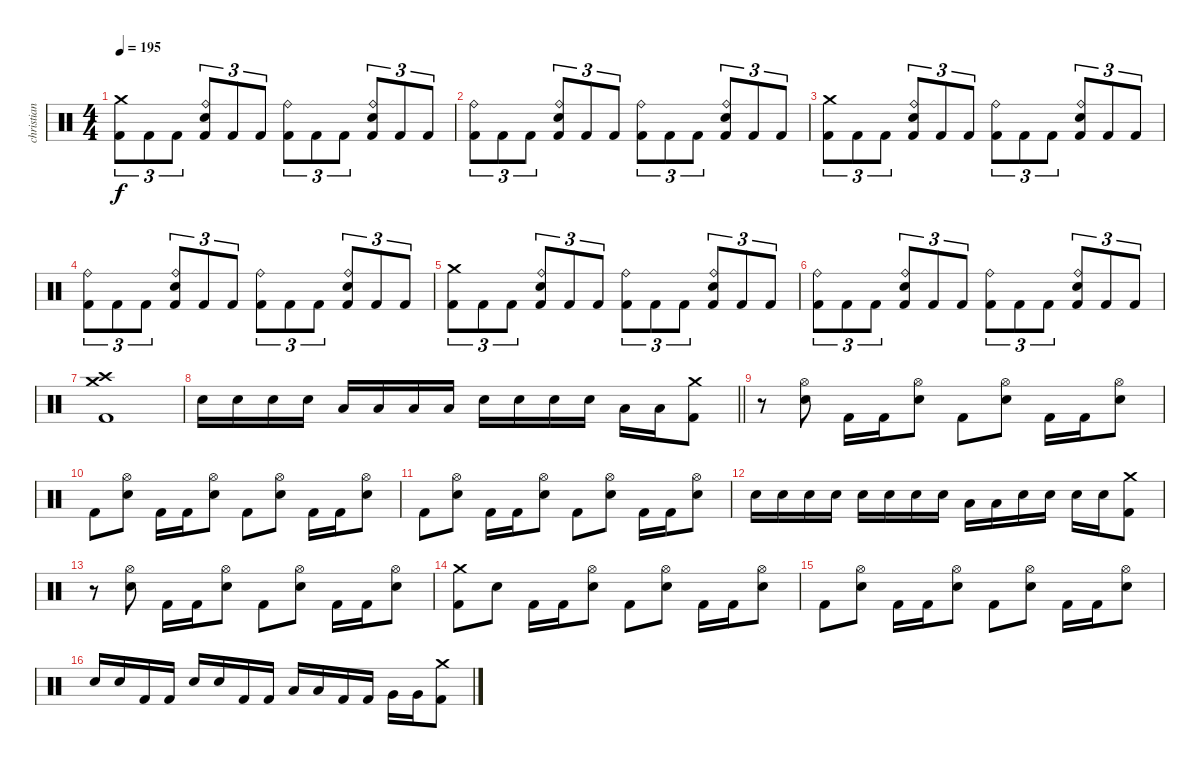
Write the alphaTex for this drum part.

\track ("christian" "christian") {instrument percussion}
\staff {score}
\articulation defaults
\ts (4 4)
\tempo 195
\clef neutral
\ks c
("Crash medium (hit)" "Kick (hit) 2").8{tu (3 2) dy f} "Kick (hit) 2".8{tu (3 2)} "Kick (hit) 2".8{tu (3 2)} ("Ride (bell)" "Electric Snare (hit)" "Kick (hit) 2").8{tu (3 2)} "Kick (hit) 2".8{tu (3 2)} "Kick (hit) 2".8{tu (3 2)} ("Ride (bell)" "Kick (hit) 2").8{tu (3 2)} "Kick (hit) 2".8{tu (3 2)} "Kick (hit) 2".8{tu (3 2)} ("Ride (bell)" "Electric Snare (hit)" "Kick (hit) 2").8{tu (3 2)} "Kick (hit) 2".8{tu (3 2)} "Kick (hit) 2".8{tu (3 2)} |
("Ride (bell)" "Kick (hit) 2").8{tu (3 2)} "Kick (hit) 2".8{tu (3 2)} "Kick (hit) 2".8{tu (3 2)} ("Ride (bell)" "Electric Snare (hit)" "Kick (hit) 2").8{tu (3 2)} "Kick (hit) 2".8{tu (3 2)} "Kick (hit) 2".8{tu (3 2)} ("Ride (bell)" "Kick (hit) 2").8{tu (3 2)} "Kick (hit) 2".8{tu (3 2)} "Kick (hit) 2".8{tu (3 2)} ("Ride (bell)" "Electric Snare (hit)" "Kick (hit) 2").8{tu (3 2)} "Kick (hit) 2".8{tu (3 2)} "Kick (hit) 2".8{tu (3 2)} |
("Crash medium (hit)" "Kick (hit) 2").8{tu (3 2)} "Kick (hit) 2".8{tu (3 2)} "Kick (hit) 2".8{tu (3 2)} ("Ride (bell)" "Electric Snare (hit)" "Kick (hit) 2").8{tu (3 2)} "Kick (hit) 2".8{tu (3 2)} "Kick (hit) 2".8{tu (3 2)} ("Ride (bell)" "Kick (hit) 2").8{tu (3 2)} "Kick (hit) 2".8{tu (3 2)} "Kick (hit) 2".8{tu (3 2)} ("Ride (bell)" "Electric Snare (hit)" "Kick (hit) 2").8{tu (3 2)} "Kick (hit) 2".8{tu (3 2)} "Kick (hit) 2".8{tu (3 2)} |
("Ride (bell)" "Kick (hit) 2").8{tu (3 2)} "Kick (hit) 2".8{tu (3 2)} "Kick (hit) 2".8{tu (3 2)} ("Ride (bell)" "Electric Snare (hit)" "Kick (hit) 2").8{tu (3 2)} "Kick (hit) 2".8{tu (3 2)} "Kick (hit) 2".8{tu (3 2)} ("Ride (bell)" "Kick (hit) 2").8{tu (3 2)} "Kick (hit) 2".8{tu (3 2)} "Kick (hit) 2".8{tu (3 2)} ("Ride (bell)" "Electric Snare (hit)" "Kick (hit) 2").8{tu (3 2)} "Kick (hit) 2".8{tu (3 2)} "Kick (hit) 2".8{tu (3 2)} |
("Crash medium (hit)" "Kick (hit) 2").8{tu (3 2)} "Kick (hit) 2".8{tu (3 2)} "Kick (hit) 2".8{tu (3 2)} ("Ride (bell)" "Electric Snare (hit)" "Kick (hit) 2").8{tu (3 2)} "Kick (hit) 2".8{tu (3 2)} "Kick (hit) 2".8{tu (3 2)} ("Ride (bell)" "Kick (hit) 2").8{tu (3 2)} "Kick (hit) 2".8{tu (3 2)} "Kick (hit) 2".8{tu (3 2)} ("Ride (bell)" "Electric Snare (hit)" "Kick (hit) 2").8{tu (3 2)} "Kick (hit) 2".8{tu (3 2)} "Kick (hit) 2".8{tu (3 2)} |
("Ride (bell)" "Kick (hit) 2").8{tu (3 2)} "Kick (hit) 2".8{tu (3 2)} "Kick (hit) 2".8{tu (3 2)} ("Ride (bell)" "Electric Snare (hit)" "Kick (hit) 2").8{tu (3 2)} "Kick (hit) 2".8{tu (3 2)} "Kick (hit) 2".8{tu (3 2)} ("Ride (bell)" "Kick (hit) 2").8{tu (3 2)} "Kick (hit) 2".8{tu (3 2)} "Kick (hit) 2".8{tu (3 2)} ("Ride (bell)" "Electric Snare (hit)" "Kick (hit) 2").8{tu (3 2)} "Kick (hit) 2".8{tu (3 2)} "Kick (hit) 2".8{tu (3 2)} |
("Crash medium (hit)" "Crash high (hit)" "Kick (hit) 2").1 |
\barLineRight lightlight "Electric Snare (hit)".16 "Electric Snare (hit)".16 "Electric Snare (hit)".16 "Electric Snare (hit)".16 "Low Tom (hit)".16 "Low Tom (hit)".16 "Low Tom (hit)".16 "Low Tom (hit)".16 "Electric Snare (hit)".16 "Electric Snare (hit)".16 "Electric Snare (hit)".16 "Electric Snare (hit)".16 "Low Tom (hit)".16 "Low Tom (hit)".16
("Crash medium (hit)" "Kick (hit) 2").8 |
r.8 ("Hi-Hat (open)" "Electric Snare (hit)").8 "Kick (hit) 2".16 "Kick (hit) 2".16 ("Hi-Hat (open)" "Electric Snare (hit)").8 "Kick (hit) 2".8 ("Hi-Hat (open)" "Electric Snare (hit)").8 "Kick (hit) 2".16 "Kick (hit) 2".16 ("Hi-Hat (open)" "Electric Snare (hit)").8 |
"Kick (hit) 2".8 ("Hi-Hat (open)" "Electric Snare (hit)").8 "Kick (hit) 2".16 "Kick (hit) 2".16 ("Hi-Hat (open)" "Electric Snare (hit)").8 "Kick (hit) 2".8 ("Hi-Hat (open)" "Electric Snare (hit)").8 "Kick (hit) 2".16 "Kick (hit) 2".16 ("Hi-Hat (open)" "Electric Snare (hit)").8 |
"Kick (hit) 2".8 ("Hi-Hat (open)" "Electric Snare (hit)").8 "Kick (hit) 2".16 "Kick (hit) 2".16 ("Hi-Hat (open)" "Electric Snare (hit)").8 "Kick (hit) 2".8 ("Hi-Hat (open)" "Electric Snare (hit)").8 "Kick (hit) 2".16 "Kick (hit) 2".16 ("Hi-Hat (open)" "Electric Snare (hit)").8 |
"Electric Snare (hit)".16 "Electric Snare (hit)".16 "Electric Snare (hit)".16 "Electric Snare (hit)".16 "Electric Snare (hit)".16 "Electric Snare (hit)".16 "Electric Snare (hit)".16 "Electric Snare (hit)".16 "Low Tom (hit)".16 "Low Tom (hit)".16 "Electric Snare (hit)".16 "Electric Snare (hit)".16 "Electric Snare (hit)".16 "Electric Snare (hit)".16 ("Crash medium (hit)" "Kick (hit) 2").8 |
r.8 ("Hi-Hat (open)" "Electric Snare (hit)").8 "Kick (hit) 2".16 "Kick (hit) 2".16 ("Hi-Hat (open)" "Electric Snare (hit)").8 "Kick (hit) 2".8 ("Hi-Hat (open)" "Electric Snare (hit)").8 "Kick (hit) 2".16 "Kick (hit) 2".16 ("Hi-Hat (open)" "Electric Snare (hit)").8 |
("Crash medium (hit)" "Kick (hit) 2").8 "Electric Snare (hit)".8 "Kick (hit) 2".16 "Kick (hit) 2".16 ("Hi-Hat (open)" "Electric Snare (hit)").8 "Kick (hit) 2".8 ("Hi-Hat (open)" "Electric Snare (hit)").8 "Kick (hit) 2".16 "Kick (hit) 2".16 ("Hi-Hat (open)" "Electric Snare (hit)").8 |
"Kick (hit) 2".8 ("Hi-Hat (open)" "Electric Snare (hit)").8 "Kick (hit) 2".16 "Kick (hit) 2".16 ("Hi-Hat (open)" "Electric Snare (hit)").8 "Kick (hit) 2".8 ("Hi-Hat (open)" "Electric Snare (hit)").8 "Kick (hit) 2".16 "Kick (hit) 2".16 ("Hi-Hat (open)" "Electric Snare (hit)").8 |
"Electric Snare (hit)".16 "Electric Snare (hit)".16 "Kick (hit) 2".16 "Kick (hit) 2".16 "Electric Snare (hit)".16 "Electric Snare (hit)".16 "Kick (hit) 2".16 "Kick (hit) 2".16 "Low Tom (hit)".16 "Low Tom (hit)".16 "Kick (hit) 2".16 "Kick (hit) 2".16 "Very Low Tom (hit)".16 "Very Low Tom (hit)".16 ("Crash medium (hit)" "Kick (hit) 2").8
